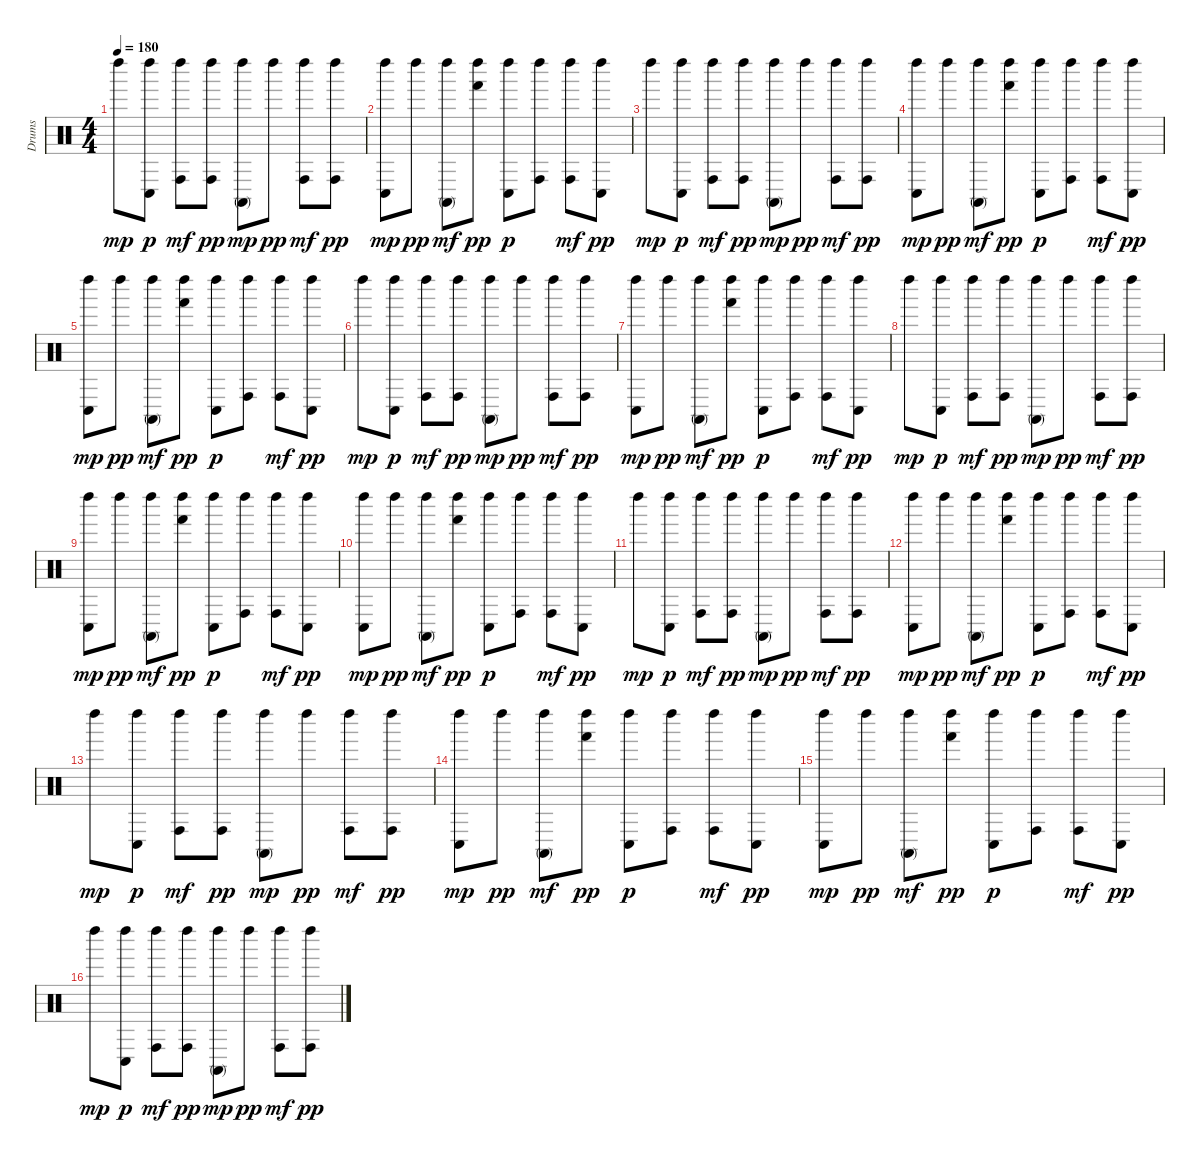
\track ("Drums" "Drums") {instrument percussion}
\staff {score}
\articulation defaults
\ts (4 4)
\tempo 180
\clef neutral
\ks c "Left Maraca (hit)".8{dy mp}
("Left Maraca (hit)" "Conga low (hit)").8{dy p} ("Left Maraca (hit)" "Conga high (hit)").8{dy mf} ("Left Maraca (hit)" "Conga high (hit)").8{dy pp} ("Left Maraca (hit)" "Conga high (mute)").8{dy mp} "Left Maraca (hit)".8{dy pp} ("Left Maraca (hit)" "Conga high (hit)").8{dy mf} ("Left Maraca (hit)" "Conga high (hit)").8{dy pp} |
("Left Maraca (hit)" "Conga low (hit)").8{dy mp} "Left Maraca (hit)".8{dy pp} ("Left Maraca (hit)" "Conga high (mute)").8{dy mf} ("Left Maraca (hit)" "Hand (hit)").8{dy pp} ("Left Maraca (hit)" "Conga low (hit)").8{dy p} ("Left Maraca (hit)" "Conga high (hit)").8 ("Left Maraca (hit)" "Conga high (hit)").8{dy mf} ("Left Maraca (hit)" "Conga low (hit)").8{dy pp} |
"Left Maraca (hit)".8{dy mp} ("Left Maraca (hit)" "Conga low (hit)").8{dy p} ("Left Maraca (hit)" "Conga high (hit)").8{dy mf} ("Left Maraca (hit)" "Conga high (hit)").8{dy pp} ("Left Maraca (hit)" "Conga high (mute)").8{dy mp} "Left Maraca (hit)".8{dy pp} ("Left Maraca (hit)" "Conga high (hit)").8{dy mf} ("Left Maraca (hit)" "Conga high (hit)").8{dy pp} |
("Left Maraca (hit)" "Conga low (hit)").8{dy mp} "Left Maraca (hit)".8{dy pp} ("Left Maraca (hit)" "Conga high (mute)").8{dy mf} ("Left Maraca (hit)" "Hand (hit)").8{dy pp} ("Left Maraca (hit)" "Conga low (hit)").8{dy p} ("Left Maraca (hit)" "Conga high (hit)").8 ("Left Maraca (hit)" "Conga high (hit)").8{dy mf} ("Left Maraca (hit)" "Conga low (hit)").8{dy pp} |
("Left Maraca (hit)" "Conga low (hit)").8{dy mp} "Left Maraca (hit)".8{dy pp} ("Left Maraca (hit)" "Conga high (mute)").8{dy mf} ("Left Maraca (hit)" "Hand (hit)").8{dy pp} ("Left Maraca (hit)" "Conga low (hit)").8{dy p} ("Left Maraca (hit)" "Conga high (hit)").8 ("Left Maraca (hit)" "Conga high (hit)").8{dy mf} ("Left Maraca (hit)" "Conga low (hit)").8{dy pp} |
"Left Maraca (hit)".8{dy mp} ("Left Maraca (hit)" "Conga low (hit)").8{dy p} ("Left Maraca (hit)" "Conga high (hit)").8{dy mf} ("Left Maraca (hit)" "Conga high (hit)").8{dy pp} ("Left Maraca (hit)" "Conga high (mute)").8{dy mp} "Left Maraca (hit)".8{dy pp} ("Left Maraca (hit)" "Conga high (hit)").8{dy mf} ("Left Maraca (hit)" "Conga high (hit)").8{dy pp} |
("Left Maraca (hit)" "Conga low (hit)").8{dy mp} "Left Maraca (hit)".8{dy pp} ("Left Maraca (hit)" "Conga high (mute)").8{dy mf} ("Left Maraca (hit)" "Hand (hit)").8{dy pp} ("Left Maraca (hit)" "Conga low (hit)").8{dy p} ("Left Maraca (hit)" "Conga high (hit)").8 ("Left Maraca (hit)" "Conga high (hit)").8{dy mf} ("Left Maraca (hit)" "Conga low (hit)").8{dy pp} |
"Left Maraca (hit)".8{dy mp} ("Left Maraca (hit)" "Conga low (hit)").8{dy p} ("Left Maraca (hit)" "Conga high (hit)").8{dy mf} ("Left Maraca (hit)" "Conga high (hit)").8{dy pp} ("Left Maraca (hit)" "Conga high (mute)").8{dy mp} "Left Maraca (hit)".8{dy pp} ("Left Maraca (hit)" "Conga high (hit)").8{dy mf} ("Left Maraca (hit)" "Conga high (hit)").8{dy pp} |
("Left Maraca (hit)" "Conga low (hit)").8{dy mp} "Left Maraca (hit)".8{dy pp} ("Left Maraca (hit)" "Conga high (mute)").8{dy mf} ("Left Maraca (hit)" "Hand (hit)").8{dy pp} ("Left Maraca (hit)" "Conga low (hit)").8{dy p} ("Left Maraca (hit)" "Conga high (hit)").8 ("Left Maraca (hit)" "Conga high (hit)").8{dy mf} ("Left Maraca (hit)" "Conga low (hit)").8{dy pp} |
("Left Maraca (hit)" "Conga low (hit)").8{dy mp} "Left Maraca (hit)".8{dy pp} ("Left Maraca (hit)" "Conga high (mute)").8{dy mf} ("Left Maraca (hit)" "Hand (hit)").8{dy pp} ("Left Maraca (hit)" "Conga low (hit)").8{dy p} ("Left Maraca (hit)" "Conga high (hit)").8 ("Left Maraca (hit)" "Conga high (hit)").8{dy mf} ("Left Maraca (hit)" "Conga low (hit)").8{dy pp} |
"Left Maraca (hit)".8{dy mp} ("Left Maraca (hit)" "Conga low (hit)").8{dy p} ("Left Maraca (hit)" "Conga high (hit)").8{dy mf} ("Left Maraca (hit)" "Conga high (hit)").8{dy pp} ("Left Maraca (hit)" "Conga high (mute)").8{dy mp} "Left Maraca (hit)".8{dy pp} ("Left Maraca (hit)" "Conga high (hit)").8{dy mf} ("Left Maraca (hit)" "Conga high (hit)").8{dy pp} |
("Left Maraca (hit)" "Conga low (hit)").8{dy mp} "Left Maraca (hit)".8{dy pp} ("Left Maraca (hit)" "Conga high (mute)").8{dy mf} ("Left Maraca (hit)" "Hand (hit)").8{dy pp} ("Left Maraca (hit)" "Conga low (hit)").8{dy p} ("Left Maraca (hit)" "Conga high (hit)").8 ("Left Maraca (hit)" "Conga high (hit)").8{dy mf} ("Left Maraca (hit)" "Conga low (hit)").8{dy pp} |
"Left Maraca (hit)".8{dy mp} ("Left Maraca (hit)" "Conga low (hit)").8{dy p} ("Left Maraca (hit)" "Conga high (hit)").8{dy mf} ("Left Maraca (hit)" "Conga high (hit)").8{dy pp} ("Left Maraca (hit)" "Conga high (mute)").8{dy mp} "Left Maraca (hit)".8{dy pp} ("Left Maraca (hit)" "Conga high (hit)").8{dy mf} ("Left Maraca (hit)" "Conga high (hit)").8{dy pp} |
("Left Maraca (hit)" "Conga low (hit)").8{dy mp} "Left Maraca (hit)".8{dy pp} ("Left Maraca (hit)" "Conga high (mute)").8{dy mf} ("Left Maraca (hit)" "Hand (hit)").8{dy pp} ("Left Maraca (hit)" "Conga low (hit)").8{dy p} ("Left Maraca (hit)" "Conga high (hit)").8 ("Left Maraca (hit)" "Conga high (hit)").8{dy mf} ("Left Maraca (hit)" "Conga low (hit)").8{dy pp} |
("Left Maraca (hit)" "Conga low (hit)").8{dy mp} "Left Maraca (hit)".8{dy pp} ("Left Maraca (hit)" "Conga high (mute)").8{dy mf} ("Left Maraca (hit)" "Hand (hit)").8{dy pp} ("Left Maraca (hit)" "Conga low (hit)").8{dy p} ("Left Maraca (hit)" "Conga high (hit)").8 ("Left Maraca (hit)" "Conga high (hit)").8{dy mf} ("Left Maraca (hit)" "Conga low (hit)").8{dy pp} |
"Left Maraca (hit)".8{dy mp} ("Left Maraca (hit)" "Conga low (hit)").8{dy p} ("Left Maraca (hit)" "Conga high (hit)").8{dy mf} ("Left Maraca (hit)" "Conga high (hit)").8{dy pp} ("Left Maraca (hit)" "Conga high (mute)").8{dy mp} "Left Maraca (hit)".8{dy pp} ("Left Maraca (hit)" "Conga high (hit)").8{dy mf} ("Left Maraca (hit)" "Conga high (hit)").8{dy pp}
